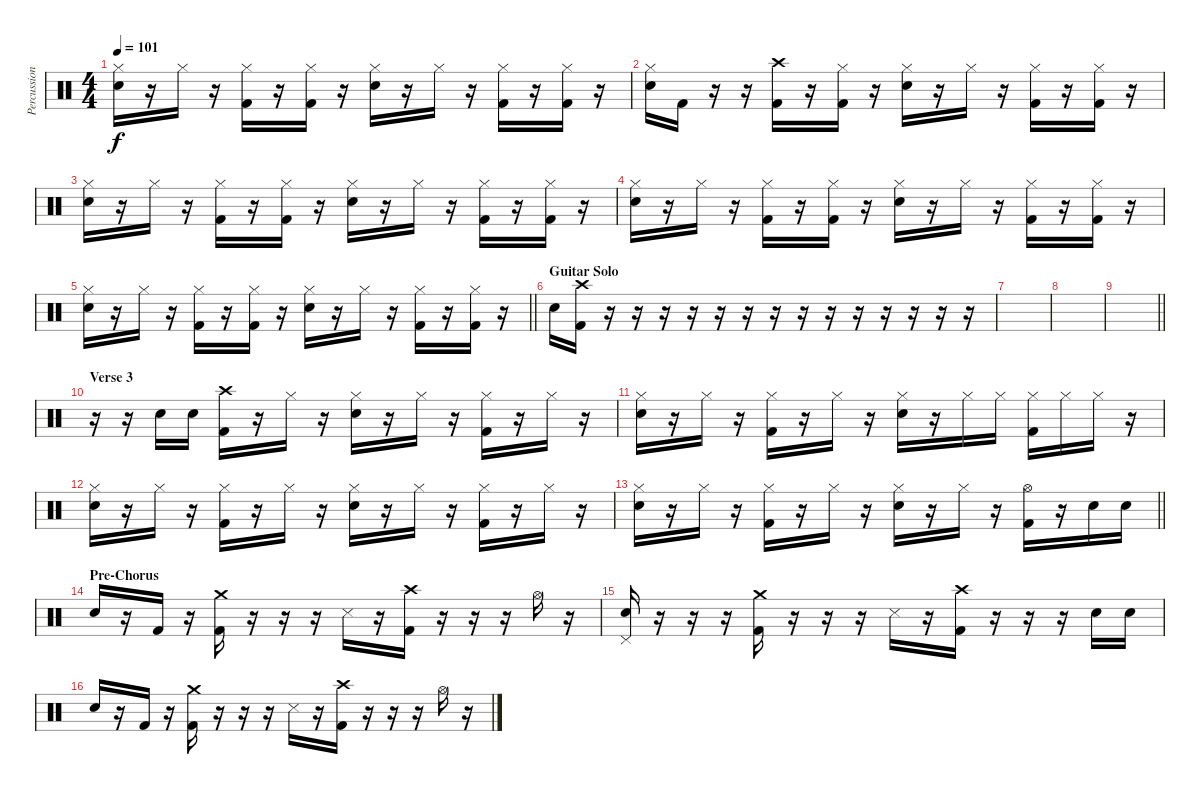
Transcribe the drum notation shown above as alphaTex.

\track ("Percussion (Chris)" "Percussion") {instrument percussion}
\staff {score}
\articulation defaults
\ts (4 4)
\tempo 101
\clef neutral
\ks c
("Hi-Hat (closed)" "Snare (hit) 2").16{dy f} r.16 "Hi-Hat (closed)".16 r.16 ("Hi-Hat (closed)" "Kick (hit) 2").16 r.16 ("Hi-Hat (closed)" "Kick (hit) 2").16 r.16 ("Hi-Hat (closed)" "Snare (hit) 2").16 r.16 "Hi-Hat (closed)".16 r.16 ("Hi-Hat (closed)" "Kick (hit) 2").16 r.16 ("Hi-Hat (closed)" "Kick (hit) 2").16 r.16 |
("Hi-Hat (closed)" "Snare (hit) 2").16 "Kick (hit) 2".16 r.16 r.16 ("Crash high (hit)" "Kick (hit) 2").16 r.16 ("Hi-Hat (closed)" "Kick (hit) 2").16 r.16 ("Hi-Hat (closed)" "Snare (hit) 2").16 r.16 "Hi-Hat (closed)".16 r.16 ("Hi-Hat (closed)" "Kick (hit) 2").16 r.16 ("Hi-Hat (closed)" "Kick (hit) 2").16 r.16 |
("Hi-Hat (closed)" "Snare (hit) 2").16 r.16 "Hi-Hat (closed)".16 r.16 ("Hi-Hat (closed)" "Kick (hit) 2").16 r.16 ("Hi-Hat (closed)" "Kick (hit) 2").16 r.16 ("Hi-Hat (closed)" "Snare (hit) 2").16 r.16 "Hi-Hat (closed)".16 r.16 ("Hi-Hat (closed)" "Kick (hit) 2").16 r.16 ("Hi-Hat (closed)" "Kick (hit) 2").16 r.16 |
("Hi-Hat (closed)" "Snare (hit) 2").16 r.16 "Hi-Hat (closed)".16 r.16 ("Hi-Hat (closed)" "Kick (hit) 2").16 r.16 ("Hi-Hat (closed)" "Kick (hit) 2").16 r.16 ("Hi-Hat (closed)" "Snare (hit) 2").16 r.16 "Hi-Hat (closed)".16 r.16 ("Hi-Hat (closed)" "Kick (hit) 2").16 r.16 ("Hi-Hat (closed)" "Kick (hit) 2").16 r.16 |
\barLineRight lightlight
("Hi-Hat (closed)" "Snare (hit) 2").16 r.16 "Hi-Hat (closed)".16 r.16 ("Hi-Hat (closed)" "Kick (hit) 2").16 r.16 ("Hi-Hat (closed)" "Kick (hit) 2").16 r.16 ("Hi-Hat (closed)" "Snare (hit) 2").16 r.16 "Hi-Hat (closed)".16 r.16 ("Hi-Hat (closed)" "Kick (hit) 2").16 r.16 ("Hi-Hat (closed)" "Kick (hit) 2").16 r.16 |
\section ("" "Guitar Solo")
"Snare (hit) 2".16 ("Crash high (hit)" "Kick (hit) 2").16 r.16 r.16 r.16 r.16 r.16 r.16 r.16 r.16 r.16 r.16 r.16 r.16 r.16 r.16 |
|
|
\barLineRight lightlight
|
\section ("" "Verse 3")
r.16 r.16 "Snare (hit) 2".16 "Snare (hit) 2".16 ("Crash high (hit)" "Kick (hit) 2").16 r.16 "Hi-Hat (closed)".16 r.16 ("Hi-Hat (closed)" "Snare (hit) 2").16 r.16 "Hi-Hat (closed)".16 r.16 ("Hi-Hat (closed)" "Kick (hit) 2").16 r.16 "Hi-Hat (closed)".16 r.16 |
("Hi-Hat (closed)" "Snare (hit) 2").16 r.16 "Hi-Hat (closed)".16 r.16 ("Hi-Hat (closed)" "Kick (hit) 2").16 r.16 "Hi-Hat (closed)".16 r.16 ("Hi-Hat (closed)" "Snare (hit) 2").16 r.16 "Hi-Hat (closed)".16 "Hi-Hat (closed)".16 ("Hi-Hat (closed)" "Kick (hit) 2").16 "Hi-Hat (closed)".16 "Hi-Hat (closed)".16 r.16 |
("Hi-Hat (closed)" "Snare (hit) 2").16 r.16 "Hi-Hat (closed)".16 r.16 ("Hi-Hat (closed)" "Kick (hit) 2").16 r.16 "Hi-Hat (closed)".16 r.16 ("Hi-Hat (closed)" "Snare (hit) 2").16 r.16 "Hi-Hat (closed)".16 r.16 ("Hi-Hat (closed)" "Kick (hit) 2").16 r.16 "Hi-Hat (closed)".16 r.16 |
\barLineRight lightlight
("Hi-Hat (closed)" "Snare (hit) 2").16 r.16 "Hi-Hat (closed)".16 r.16 ("Hi-Hat (closed)" "Kick (hit) 2").16 r.16 "Hi-Hat (closed)".16 r.16 ("Hi-Hat (closed)" "Snare (hit) 2").16 r.16 "Hi-Hat (closed)".16 r.16 ("Hi-Hat (open)" "Kick (hit) 2").16 r.16 "Snare (hit) 2".16 "Snare (hit) 2".16 |
\section ("" "Pre-Chorus")
"Snare (hit) 2".16 r.16 "Kick (hit) 2".16 r.16 ("Crash medium (hit)" "Kick (hit) 2").16 r.16 r.16 r.16 "Snare (side stick) 3".16 r.16 ("Crash high (hit)" "Kick (hit) 2").16 r.16 r.16 r.16 "Hi-Hat (open)".16 r.16 |
("Pedal Hi-Hat (hit)" "Snare (hit) 2").16 r.16 r.16 r.16 ("Crash medium (hit)" "Kick (hit) 2").16 r.16 r.16 r.16 "Snare (side stick) 3".16 r.16 ("Crash high (hit)" "Kick (hit) 2").16 r.16 r.16 r.16 "Snare (hit) 2".16 "Snare (hit) 2".16 |
"Snare (hit) 2".16 r.16 "Kick (hit) 2".16 r.16 ("Crash medium (hit)" "Kick (hit) 2").16 r.16 r.16 r.16 "Snare (side stick) 3".16 r.16 ("Crash high (hit)" "Kick (hit) 2").16 r.16 r.16 r.16 "Hi-Hat (open)".16 r.16
